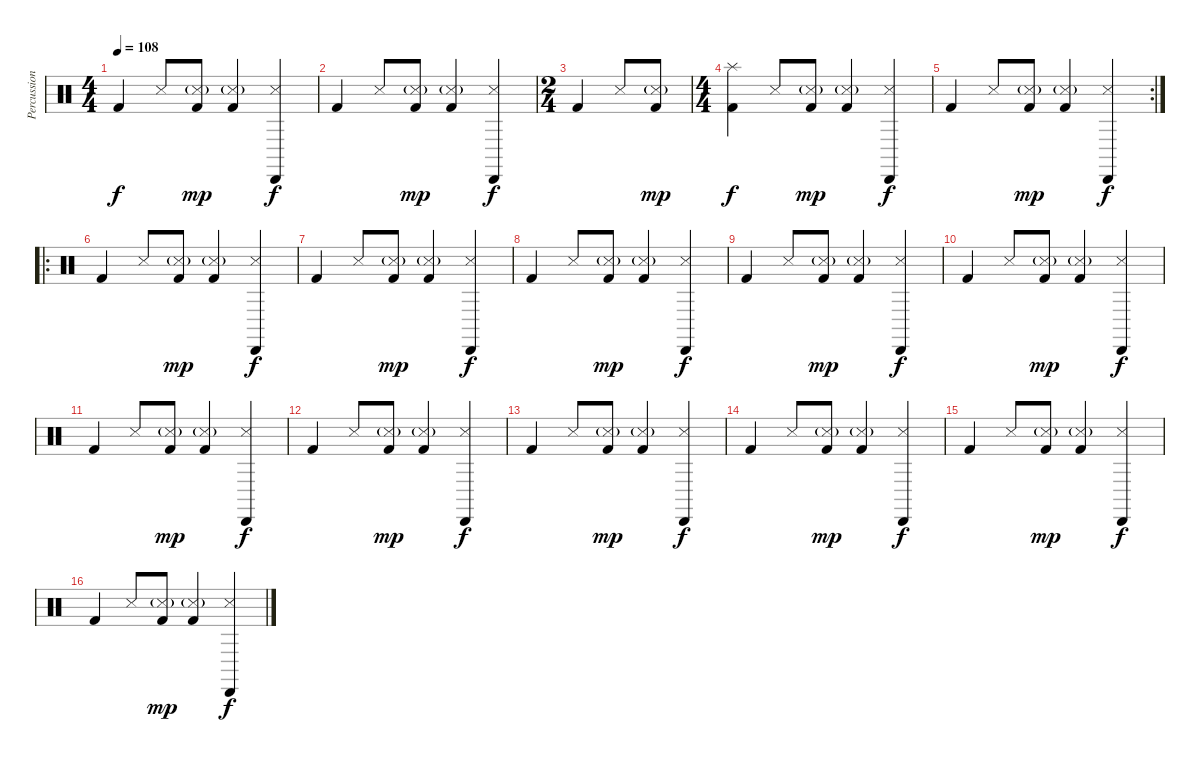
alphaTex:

\track ("Percussions" "Percussion") {instrument percussion}
\staff {score}
\articulation defaults
\ts (4 4)
\tempo 108
\clef neutral
\ks c "Kick (hit) 2".4{dy f} "Metronome (hit)".8
("Metronome (hit)"{g} "Kick (hit) 2").8{dy mp} ("Snare (side stick) 3"{g} "Kick (hit) 2").4 ("Cabasa (hit)" "Metronome (hit)").4{dy f} |
"Kick (hit) 2".4 "Metronome (hit)".8 ("Metronome (hit)"{g} "Kick (hit) 2").8{dy mp} ("Snare (side stick) 3"{g} "Kick (hit) 2").4 ("Cabasa (hit)" "Metronome (hit)").4{dy f} |
\ts (2 4)
"Kick (hit) 2".4 "Metronome (hit)".8 ("Metronome (hit)"{g} "Kick (hit) 2").8{dy mp} |
\ts (4 4)
("Kick (hit) 2" "Splash (hit)").4{dy f} "Metronome (hit)".8 ("Metronome (hit)"{g} "Kick (hit) 2").8{dy mp} ("Snare (side stick) 3"{g} "Kick (hit) 2").4 ("Cabasa (hit)" "Metronome (hit)").4{dy f} |
\rc 2 "Kick (hit) 2".4 "Metronome (hit)".8
("Metronome (hit)"{g} "Kick (hit) 2").8{dy mp} ("Snare (side stick) 3"{g} "Kick (hit) 2").4 ("Cabasa (hit)" "Metronome (hit)").4{dy f} |
\ro "Kick (hit) 2".4 "Metronome (hit)".8
("Metronome (hit)"{g} "Kick (hit) 2").8{dy mp} ("Snare (side stick) 3"{g} "Kick (hit) 2").4 ("Cabasa (hit)" "Metronome (hit)").4{dy f} |
"Kick (hit) 2".4 "Metronome (hit)".8 ("Metronome (hit)"{g} "Kick (hit) 2").8{dy mp} ("Snare (side stick) 3"{g} "Kick (hit) 2").4 ("Cabasa (hit)" "Metronome (hit)").4{dy f} |
"Kick (hit) 2".4 "Metronome (hit)".8 ("Metronome (hit)"{g} "Kick (hit) 2").8{dy mp} ("Snare (side stick) 3"{g} "Kick (hit) 2").4 ("Cabasa (hit)" "Metronome (hit)").4{dy f} |
"Kick (hit) 2".4 "Metronome (hit)".8 ("Metronome (hit)"{g} "Kick (hit) 2").8{dy mp} ("Snare (side stick) 3"{g} "Kick (hit) 2").4 ("Cabasa (hit)" "Metronome (hit)").4{dy f} |
"Kick (hit) 2".4 "Metronome (hit)".8 ("Metronome (hit)"{g} "Kick (hit) 2").8{dy mp} ("Snare (side stick) 3"{g} "Kick (hit) 2").4 ("Cabasa (hit)" "Metronome (hit)").4{dy f} |
"Kick (hit) 2".4 "Metronome (hit)".8 ("Metronome (hit)"{g} "Kick (hit) 2").8{dy mp} ("Snare (side stick) 3"{g} "Kick (hit) 2").4 ("Cabasa (hit)" "Metronome (hit)").4{dy f} |
"Kick (hit) 2".4 "Metronome (hit)".8 ("Metronome (hit)"{g} "Kick (hit) 2").8{dy mp} ("Snare (side stick) 3"{g} "Kick (hit) 2").4 ("Cabasa (hit)" "Metronome (hit)").4{dy f} |
"Kick (hit) 2".4 "Metronome (hit)".8 ("Metronome (hit)"{g} "Kick (hit) 2").8{dy mp} ("Snare (side stick) 3"{g} "Kick (hit) 2").4 ("Cabasa (hit)" "Metronome (hit)").4{dy f} |
"Kick (hit) 2".4 "Metronome (hit)".8 ("Metronome (hit)"{g} "Kick (hit) 2").8{dy mp} ("Snare (side stick) 3"{g} "Kick (hit) 2").4 ("Cabasa (hit)" "Metronome (hit)").4{dy f} |
"Kick (hit) 2".4 "Metronome (hit)".8 ("Metronome (hit)"{g} "Kick (hit) 2").8{dy mp} ("Snare (side stick) 3"{g} "Kick (hit) 2").4 ("Cabasa (hit)" "Metronome (hit)").4{dy f} |
"Kick (hit) 2".4 "Metronome (hit)".8 ("Metronome (hit)"{g} "Kick (hit) 2").8{dy mp} ("Snare (side stick) 3"{g} "Kick (hit) 2").4 ("Cabasa (hit)" "Metronome (hit)").4{dy f}
